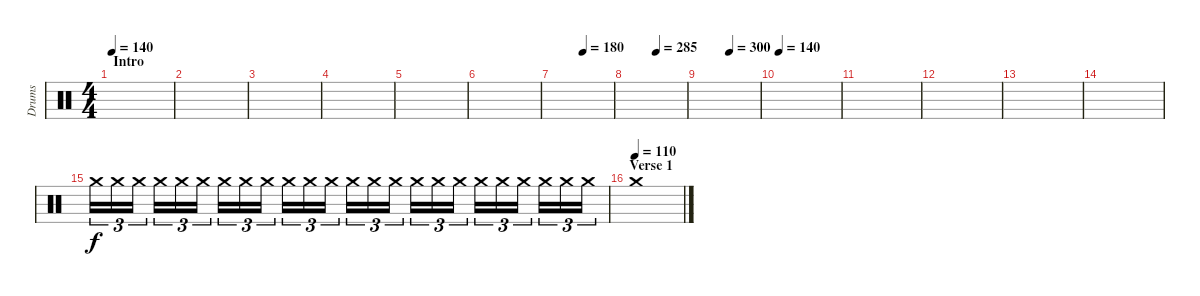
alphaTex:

\track ("Drums" "Drums") {instrument percussion}
\staff {score}
\articulation defaults
\ts (4 4)
\section ("" "Intro")
\tempo 140
\clef neutral
\ks c
|
|
|
|
|
|
\tempo (180 0.5)
|
\tempo (285 0.5)
|
\tempo (300 0.5)
|
\tempo 140
|
|
|
|
|
"Crash medium (hit)".16{tu (3 2) volume 0} "Crash medium (hit)".16{tu (3 2)} "Crash medium (hit)".16{tu (3 2) volume 1} "Crash medium (hit)".16{tu (3 2)} "Crash medium (hit)".16{tu (3 2) volume 2} "Crash medium (hit)".16{tu (3 2)} "Crash medium (hit)".16{tu (3 2) volume 3} "Crash medium (hit)".16{tu (3 2)} "Crash medium (hit)".16{tu (3 2) volume 4} "Crash medium (hit)".16{tu (3 2)} "Crash medium (hit)".16{tu (3 2) volume 5} "Crash medium (hit)".16{tu (3 2)} "Crash medium (hit)".16{tu (3 2) volume 6} "Crash medium (hit)".16{tu (3 2)} "Crash medium (hit)".16{tu (3 2) volume 7} "Crash medium (hit)".16{tu (3 2)} "Crash medium (hit)".16{tu (3 2) volume 8} "Crash medium (hit)".16{tu (3 2)} "Crash medium (hit)".16{tu (3 2) volume 9} "Crash medium (hit)".16{tu (3 2)} "Crash medium (hit)".16{tu (3 2) volume 11} "Crash medium (hit)".16{tu (3 2)} "Crash medium (hit)".16{tu (3 2) volume 12} "Crash medium (hit)".16{tu (3 2)} |
\section ("" "Verse 1")
\tempo (110)
"Crash medium (hit)".1
